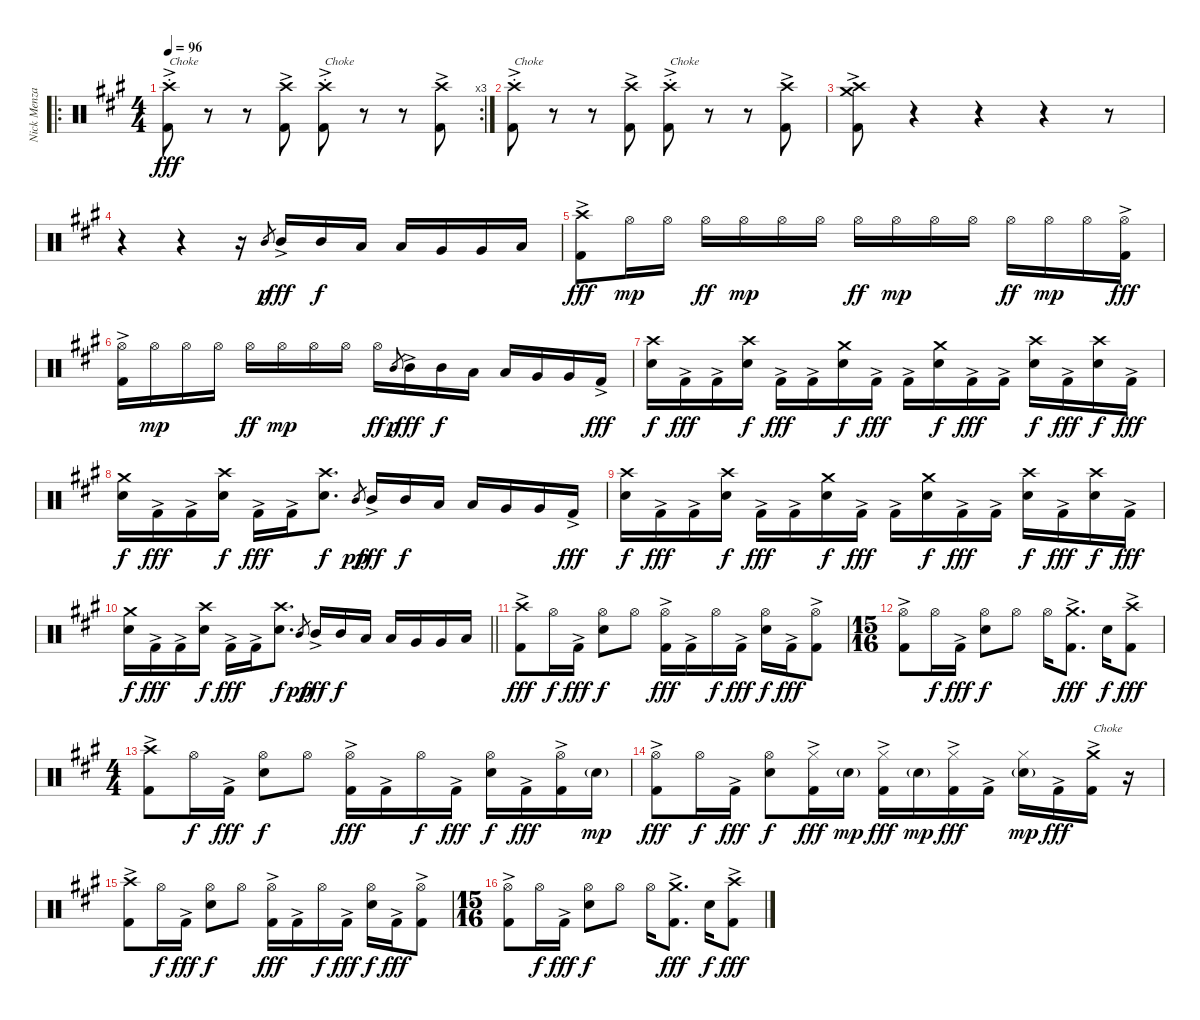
\track ("Nick Menza" "Nick Menza") {instrument percussion}
\staff {score}
\articulation defaults
\ro
\rc 3
\ts (4 4)
\tempo 96
\clef neutral
\ks f#minor
("Crash high (hit)"{st} "Kick (hit) 2"{ac}).8{txt "Choke " dy fff} r.8 r.8 ("Crash high (hit)" "Kick (hit) 2"{ac}).8 ("Crash high (hit)"{st} "Kick (hit) 2"{ac}).8{txt "Choke"} r.8 r.8 ("Crash high (hit)" "Kick (hit) 2"{ac}).8 |
("Crash high (hit)"{st} "Kick (hit) 2"{ac}).8{txt "Choke"} r.8 r.8 ("Crash high (hit)" "Kick (hit) 2"{ac}).8 ("Crash high (hit)"{st} "Kick (hit) 2"{ac}).8{txt "Choke"} r.8 r.8 ("Crash high (hit)" "Kick (hit) 2"{ac}).8 |
("Crash high (hit)" "Crash medium (hit)" "Kick (hit) 2"{ac}).8 r.4 r.4 r.4 r.8 |
r.4 r.4 r.16 "Mid Tom (hit)".8{gr dy p} "Mid Tom (hit)"{ac}.16{dy fff} "Mid Tom (hit)".16{dy f} "Low Tom (hit)".16 "Low Tom (hit)".16 "Very Low Tom (hit)".16 "Very Low Tom (hit)".16 "Low Floor Tom (hit)".16 |
("Crash high (hit)" "Kick (hit) 2"{ac}).8{dy fff} "Hi-Hat (open)".16{dy mp} "Hi-Hat (open)".16 "Hi-Hat (open)".16{dy ff} "Hi-Hat (open)".16{dy mp} "Hi-Hat (open)".16 "Hi-Hat (open)".16 "Hi-Hat (open)".16{dy ff} "Hi-Hat (open)".16{dy mp} "Hi-Hat (open)".16 "Hi-Hat (open)".16 "Hi-Hat (open)".16{dy ff} "Hi-Hat (open)".16{dy mp} "Hi-Hat (open)".16 ("Hi-Hat (open)" "Kick (hit) 2"{ac}).16{dy fff} |
("Hi-Hat (open)" "Kick (hit) 2"{ac}).16 "Hi-Hat (open)".16{dy mp} "Hi-Hat (open)".16 "Hi-Hat (open)".16 "Hi-Hat (open)".16{dy ff} "Hi-Hat (open)".16{dy mp} "Hi-Hat (open)".16 "Hi-Hat (open)".16 "Hi-Hat (open)".16{dy ff} "Mid Tom (hit)".8{gr dy p} "Mid Tom (hit)"{ac}.16{dy fff} "Mid Tom (hit)".16{dy f} "Low Tom (hit)".16 "Low Tom (hit)".16 "Very Low Tom (hit)".16 "Very Low Tom (hit)".16 "Kick (hit) 2"{ac}.16{dy fff} |
("Crash high (hit)" "Snare (hit) 2").16{dy f} "Kick (hit) 2"{ac}.16{dy fff} "Kick (hit) 2"{ac}.16 ("Crash high (hit)" "Snare (hit) 2").16{dy f} "Kick (hit) 2"{ac}.16{dy fff} "Kick (hit) 2"{ac}.16 ("Crash medium (hit)" "Snare (hit) 2").16{dy f} "Kick (hit) 2"{ac}.16{dy fff} "Kick (hit) 2"{ac}.16 ("Crash medium (hit)" "Snare (hit) 2").16{dy f} "Kick (hit) 2"{ac}.16{dy fff} "Kick (hit) 2"{ac}.16 ("Crash high (hit)" "Snare (hit) 2").16{dy f} "Kick (hit) 2"{ac}.16{dy fff} ("Crash high (hit)" "Snare (hit) 2").16{dy f} "Kick (hit) 2"{ac}.16{dy fff} |
("Crash medium (hit)" "Snare (hit) 2").16{dy f} "Kick (hit) 2"{ac}.16{dy fff} "Kick (hit) 2"{ac}.16 ("Crash high (hit)" "Snare (hit) 2").16{dy f} "Kick (hit) 2"{ac}.16{dy fff} "Kick (hit) 2"{ac}.16 ("Crash high (hit)" "Snare (hit) 2").8{d dy f} "Mid Tom (hit)".8{gr dy pp} "Mid Tom (hit)"{ac}.16{dy fff} "Mid Tom (hit)".16{dy f} "Low Tom (hit)".16 "Low Tom (hit)".16 "Very Low Tom (hit)".16 "Very Low Tom (hit)".16 "Kick (hit) 2"{ac}.16{dy fff} |
("Crash high (hit)" "Snare (hit) 2").16{dy f} "Kick (hit) 2"{ac}.16{dy fff} "Kick (hit) 2"{ac}.16 ("Crash high (hit)" "Snare (hit) 2").16{dy f} "Kick (hit) 2"{ac}.16{dy fff} "Kick (hit) 2"{ac}.16 ("Crash medium (hit)" "Snare (hit) 2").16{dy f} "Kick (hit) 2"{ac}.16{dy fff} "Kick (hit) 2"{ac}.16 ("Crash medium (hit)" "Snare (hit) 2").16{dy f} "Kick (hit) 2"{ac}.16{dy fff} "Kick (hit) 2"{ac}.16 ("Crash high (hit)" "Snare (hit) 2").16{dy f} "Kick (hit) 2"{ac}.16{dy fff} ("Crash high (hit)" "Snare (hit) 2").16{dy f} "Kick (hit) 2"{ac}.16{dy fff} |
\barLineRight lightlight
("Crash medium (hit)" "Snare (hit) 2").16{dy f} "Kick (hit) 2"{ac}.16{dy fff} "Kick (hit) 2"{ac}.16 ("Crash high (hit)" "Snare (hit) 2").16{dy f} "Kick (hit) 2"{ac}.16{dy fff} "Kick (hit) 2"{ac}.16 ("Crash high (hit)" "Snare (hit) 2").8{d dy f} "Mid Tom (hit)".8{gr dy pp} "Mid Tom (hit)"{ac}.16{dy fff} "Mid Tom (hit)".16{dy f} "Low Tom (hit)".16 "Low Tom (hit)".16 "Very Low Tom (hit)".16 "Very Low Tom (hit)".16 "Low Floor Tom (hit)".16 |
("Crash high (hit)" "Kick (hit) 2"{ac}).8{dy fff} "Hi-Hat (open)".16{dy f} "Kick (hit) 2"{ac}.16{dy fff} ("Hi-Hat (open)" "Snare (hit) 2").8{dy f} "Hi-Hat (open)".8 ("Hi-Hat (open)" "Kick (hit) 2"{ac}).16{dy fff} "Kick (hit) 2"{ac}.16 "Hi-Hat (open)".16{dy f} "Kick (hit) 2"{ac}.16{dy fff} ("Hi-Hat (open)" "Snare (hit) 2").16{dy f} "Kick (hit) 2"{ac}.16{dy fff} ("Hi-Hat (open)" "Kick (hit) 2"{ac}).8 |
\ts (15 16)
("Hi-Hat (open)" "Kick (hit) 2"{ac}).8 "Hi-Hat (open)".16{dy f} "Kick (hit) 2"{ac}.16{dy fff} ("Hi-Hat (open)" "Snare (hit) 2").8{dy f} "Hi-Hat (open)".8 "Hi-Hat (open)".16 ("Crash medium (hit)" "Kick (hit) 2"{ac}).8{d dy fff} "Snare (hit) 2".16{dy f} ("Crash high (hit)" "Kick (hit) 2"{ac}).8{dy fff} |
\ts (4 4)
("Crash high (hit)" "Kick (hit) 2"{ac}).8 "Hi-Hat (open)".16{dy f} "Kick (hit) 2"{ac}.16{dy fff} ("Hi-Hat (open)" "Snare (hit) 2").8{dy f} "Hi-Hat (open)".8 ("Hi-Hat (open)" "Kick (hit) 2"{ac}).16{dy fff} "Kick (hit) 2"{ac}.16 "Hi-Hat (open)".16{dy f} "Kick (hit) 2"{ac}.16{dy fff} ("Hi-Hat (open)" "Snare (hit) 2").16{dy f} "Kick (hit) 2"{ac}.16{dy fff} ("Hi-Hat (open)" "Kick (hit) 2"{ac}).16 "Snare (hit) 2"{g}.16{dy mp} |
("Hi-Hat (open)" "Kick (hit) 2"{ac}).8{dy fff} "Hi-Hat (open)".16{dy f} "Kick (hit) 2"{ac}.16{dy fff} ("Hi-Hat (open)" "Snare (hit) 2").8{dy f} ("Hi-Hat (closed)" "Kick (hit) 2"{ac}).16{dy fff} "Snare (hit) 2"{g}.16{dy mp} ("Hi-Hat (closed)" "Kick (hit) 2"{ac}).16{dy fff} "Snare (hit) 2"{g}.16{dy mp} ("Hi-Hat (closed)" "Kick (hit) 2"{ac}).16{dy fff} "Kick (hit) 2"{ac}.16 ("Hi-Hat (closed)" "Snare (hit) 2"{g}).16{dy mp} "Kick (hit) 2"{ac}.16{dy fff} ("Crash medium (hit)" "Kick (hit) 2"{ac}).16{txt "Choke"} r.16 |
("Crash high (hit)" "Kick (hit) 2"{ac}).8 "Hi-Hat (open)".16{dy f} "Kick (hit) 2"{ac}.16{dy fff} ("Hi-Hat (open)" "Snare (hit) 2").8{dy f} "Hi-Hat (open)".8 ("Hi-Hat (open)" "Kick (hit) 2"{ac}).16{dy fff} "Kick (hit) 2"{ac}.16 "Hi-Hat (open)".16{dy f} "Kick (hit) 2"{ac}.16{dy fff} ("Hi-Hat (open)" "Snare (hit) 2").16{dy f} "Kick (hit) 2"{ac}.16{dy fff} ("Hi-Hat (open)" "Kick (hit) 2"{ac}).8 |
\ts (15 16)
("Hi-Hat (open)" "Kick (hit) 2"{ac}).8 "Hi-Hat (open)".16{dy f} "Kick (hit) 2"{ac}.16{dy fff} ("Hi-Hat (open)" "Snare (hit) 2").8{dy f} "Hi-Hat (open)".8 "Hi-Hat (open)".16 ("Crash medium (hit)" "Kick (hit) 2"{ac}).8{d dy fff} "Snare (hit) 2".16{dy f} ("Crash high (hit)" "Kick (hit) 2"{ac}).8{dy fff}
